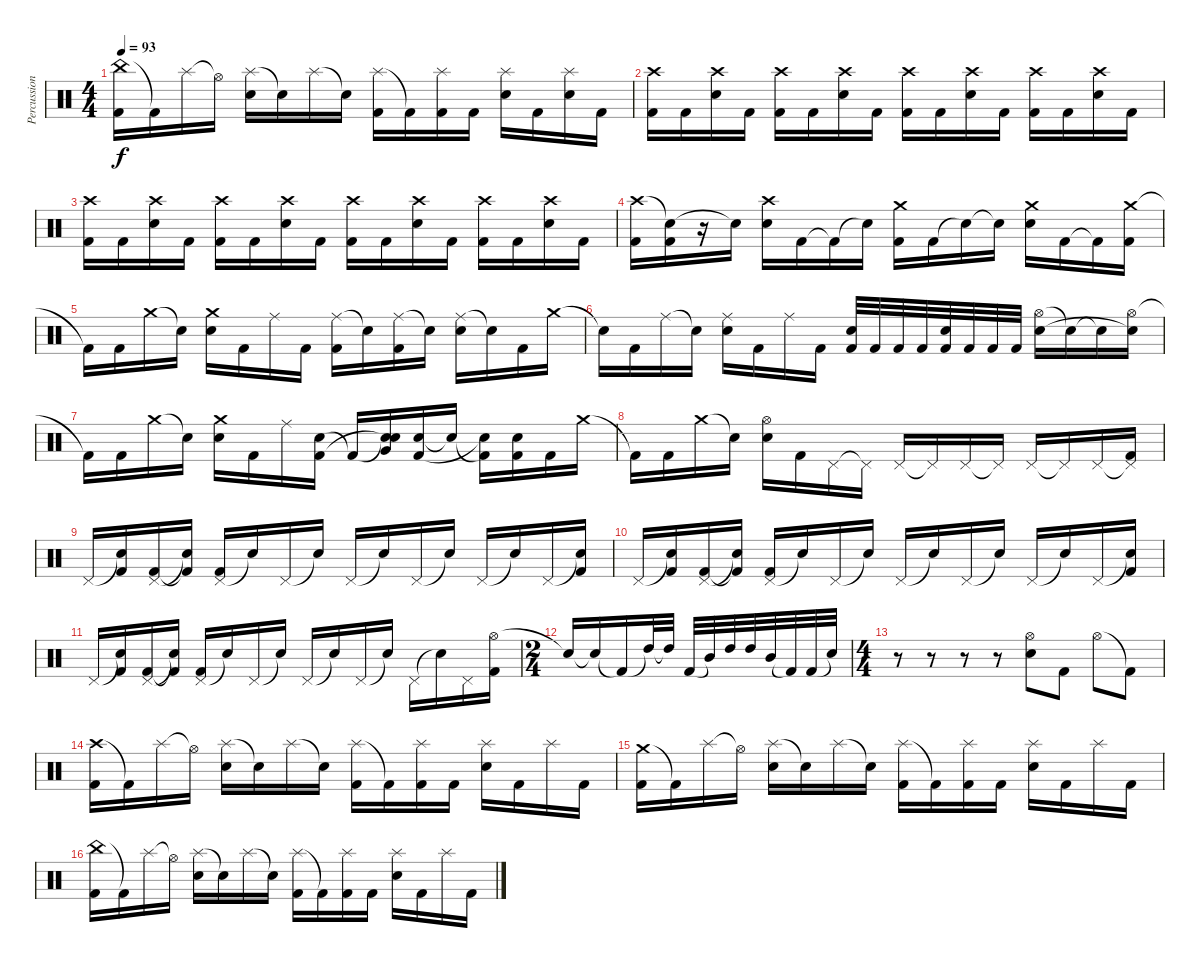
\track ("Percussion" "Percussion") {instrument percussion}
\staff {score}
\articulation defaults
\ts (4 4)
\tempo 93
\clef neutral
\ks c
("China (hit)" "Kick (hit) 2").16{dy f} "Kick (hit) 2"{t}.16 "Splash (hit)".16 "Hi-Hat (open)"{t}.16 ("Splash (hit)" "Electric Snare (hit)").16 "Snare (hit)"{t}.16 "Splash (hit)".16 "Snare (hit)"{t}.16 ("Splash (hit)" "Kick (hit) 2").16 "Kick (hit) 2"{t}.16 ("Splash (hit)" "Kick (hit) 2").16 "Kick (hit) 2".16 ("Electric Snare (hit)" "Splash (hit)").16 "Kick (hit) 2".16 ("Electric Snare (hit)" "Splash (hit)").16 "Kick (hit) 2".16 |
("Crash high (hit)" "Kick (hit) 2").16 "Kick (hit) 2".16 ("Electric Snare (hit)" "Crash high (hit)").16 "Kick (hit) 2".16 ("Crash high (hit)" "Kick (hit) 2").16 "Kick (hit) 2".16 ("Electric Snare (hit)" "Crash high (hit)").16 "Kick (hit) 2".16 ("Crash high (hit)" "Kick (hit) 2").16 "Kick (hit) 2".16 ("Electric Snare (hit)" "Crash high (hit)").16 "Kick (hit) 2".16 ("Crash high (hit)" "Kick (hit) 2").16 "Kick (hit) 2".16 ("Electric Snare (hit)" "Crash high (hit)").16 "Kick (hit) 2".16 |
("Crash high (hit)" "Kick (hit) 2").16 "Kick (hit) 2".16 ("Electric Snare (hit)" "Crash high (hit)").16 "Kick (hit) 2".16 ("Crash high (hit)" "Kick (hit) 2").16 "Kick (hit) 2".16 ("Electric Snare (hit)" "Crash high (hit)").16 "Kick (hit) 2".16 ("Crash high (hit)" "Kick (hit) 2").16 "Kick (hit) 2".16 ("Electric Snare (hit)" "Crash high (hit)").16 "Kick (hit) 2".16 ("Crash high (hit)" "Kick (hit) 2").16 "Kick (hit) 2".16 ("Electric Snare (hit)" "Crash high (hit)").16 "Kick (hit) 2".16 |
("Crash high (hit)" "Kick (hit) 2").16 ("Snare (hit)"{t} "Kick (hit) 2").16 r.16 "Snare (hit)"{t}.16 ("Crash high (hit)" "Electric Snare (hit)").16 "Kick (hit) 2".16 "Kick (hit) 2"{t}.16 "Snare (hit)"{t}.16 ("Crash medium (hit)" "Kick (hit) 2").16 "Kick (hit) 2".16 "Snare (hit)"{t}.16 "Snare (hit)"{t}.16 ("Crash medium (hit)" "Electric Snare (hit)").16 "Kick (hit) 2".16 "Kick (hit) 2"{t}.16 ("Crash medium (hit)" "Kick (hit) 2").16 |
"Kick (hit) 2"{t}.16 "Kick (hit) 2".16 "Crash medium (hit)".16 "Snare (hit)"{t}.16 ("Crash medium (hit)" "Electric Snare (hit)").16 "Kick (hit) 2".16 "Ride (middle)".16 "Kick (hit) 2".16 ("Ride (middle)" "Kick (hit) 2").16 "Snare (hit)"{t}.16 ("Ride (middle)" "Kick (hit) 2").16 "Snare (hit)"{t}.16 ("Ride (middle)" "Electric Snare (hit)").16 "Snare (hit)"{t}.16 "Kick (hit) 2".16 "Crash medium (hit)".16 |
"Snare (hit)"{t}.16 "Kick (hit) 2".16 "Ride (middle)".16 "Snare (hit)"{t}.16 ("Ride (middle)" "Electric Snare (hit)").16 "Kick (hit) 2".16 "Ride (middle)".16 "Kick (hit) 2".16 ("Electric Snare (hit)" "Kick (hit) 2").32 "Kick (hit) 2".32 "Kick (hit) 2".32 "Kick (hit) 2".32 ("Electric Snare (hit)" "Kick (hit) 2").32 "Kick (hit) 2".32 "Kick (hit) 2".32 "Kick (hit) 2".32 ("Hi-Hat (open)" "Electric Snare (hit)").16 "Snare (hit)"{t}.16 "Snare (hit)"{t}.16 ("Hi-Hat (open)" "Snare (hit)"{t}).16 |
"Kick (hit) 2"{t}.16 "Kick (hit) 2".16 "Crash medium (hit)".16 "Snare (hit)"{t}.16 ("Crash medium (hit)" "Electric Snare (hit)").16 "Kick (hit) 2".16 "Ride (middle)".16 ("Electric Snare (hit)" "Kick (hit) 2").16 "Kick (hit) 2"{t}.16 ("Snare (hit)"{t} "Electric Snare (hit)"{t} "Very Low Tom (hit)").16 ("Electric Snare (hit)" "Kick (hit) 2").16 "Snare (hit)"{t}.16 ("Kick (hit) 2"{t} "Electric Snare (hit)"{t}).16 ("Kick (hit) 2" "Electric Snare (hit)").16 "Kick (hit) 2".16 "Crash medium (hit)".16 |
"Kick (hit) 2"{t}.16 "Kick (hit) 2".16 "Crash medium (hit)".16 "Snare (hit)"{t}.16 ("Hi-Hat (open)" "Electric Snare (hit)").16 "Kick (hit) 2".16 "Pedal Hi-Hat (hit)".16 "Pedal Hi-Hat (hit)"{t}.16 "Pedal Hi-Hat (hit)".16 "Pedal Hi-Hat (hit)"{t}.16 "Pedal Hi-Hat (hit)".16 "Pedal Hi-Hat (hit)"{t}.16 "Pedal Hi-Hat (hit)".16 "Pedal Hi-Hat (hit)"{t}.16 "Pedal Hi-Hat (hit)".16 ("Pedal Hi-Hat (hit)"{t} "Kick (hit) 2").16 |
"Pedal Hi-Hat (hit)".16 ("Snare (hit)"{t} "Kick (hit) 2").16 ("Pedal Hi-Hat (hit)" "Kick (hit) 2").16 ("Snare (hit)"{t} "Kick (hit) 2"{t}).16 ("Pedal Hi-Hat (hit)" "Kick (hit) 2").16 "Snare (hit)"{t}.16 "Pedal Hi-Hat (hit)".16 "Snare (hit)"{t}.16 "Pedal Hi-Hat (hit)".16 "Snare (hit)"{t}.16 "Pedal Hi-Hat (hit)".16 "Snare (hit)"{t}.16 "Pedal Hi-Hat (hit)".16 "Snare (hit)"{t}.16 "Pedal Hi-Hat (hit)".16 ("Snare (hit)"{t} "Kick (hit) 2").16 |
"Pedal Hi-Hat (hit)".16 ("Snare (hit)"{t} "Kick (hit) 2").16 ("Pedal Hi-Hat (hit)" "Kick (hit) 2").16 ("Snare (hit)"{t} "Kick (hit) 2"{t}).16 ("Pedal Hi-Hat (hit)" "Kick (hit) 2").16 "Snare (hit)"{t}.16 "Pedal Hi-Hat (hit)".16 "Snare (hit)"{t}.16 "Pedal Hi-Hat (hit)".16 "Snare (hit)"{t}.16 "Pedal Hi-Hat (hit)".16 "Snare (hit)"{t}.16 "Pedal Hi-Hat (hit)".16 "Snare (hit)"{t}.16 "Pedal Hi-Hat (hit)".16 ("Snare (hit)"{t} "Kick (hit) 2").16 |
"Pedal Hi-Hat (hit)".16 ("Snare (hit)"{t} "Kick (hit) 2").16 ("Pedal Hi-Hat (hit)" "Kick (hit) 2").16 ("Snare (hit)"{t} "Kick (hit) 2"{t}).16 ("Pedal Hi-Hat (hit)" "Kick (hit) 2").16 "Snare (hit)"{t}.16 "Pedal Hi-Hat (hit)".16 "Snare (hit)"{t}.16 "Pedal Hi-Hat (hit)".16 "Snare (hit)"{t}.16 "Pedal Hi-Hat (hit)".16 "Snare (hit)"{t}.16 "Pedal Hi-Hat (hit)".16 "Snare (hit)"{t}.16 "Pedal Hi-Hat (hit)".16 ("Hi-Hat (open)" "Kick (hit) 2").16 |
\ts (2 4)
"Snare (hit)"{t}.16 "Snare (hit)"{t}.16 "Kick (hit) 2"{t}.16 "High Tom (hit)"{t}.32 "High Tom (hit)"{t}.32 "Kick (hit) 2".32 "Mid Tom (hit)"{t}.32 "High Tom (hit)".32 "High Tom (hit)".32 "Mid Tom (hit)".32 "Kick (hit) 2"{t}.32 "Kick (hit) 2".32 "Snare (hit)"{t}.32 |
\ts (4 4)
r.8 r.8 r.8 r.8 ("Hi-Hat (open)" "Electric Snare (hit)").8 "Kick (hit) 2".8 "Hi-Hat (open)".8 "Kick (hit) 2"{t}.8 |
("Crash high (hit)" "Kick (hit) 2").16 "Kick (hit) 2"{t}.16 "Splash (hit)".16 "Hi-Hat (open)"{t}.16 ("Splash (hit)" "Electric Snare (hit)").16 "Snare (hit)"{t}.16 "Splash (hit)".16 "Snare (hit)"{t}.16 ("Splash (hit)" "Kick (hit) 2").16 "Kick (hit) 2"{t}.16 ("Splash (hit)" "Kick (hit) 2").16 "Kick (hit) 2".16 ("Electric Snare (hit)" "Splash (hit)").16 "Kick (hit) 2".16 "Splash (hit)".16 "Kick (hit) 2".16 |
("Crash medium (hit)" "Kick (hit) 2").16 "Kick (hit) 2"{t}.16 "Splash (hit)".16 "Hi-Hat (open)"{t}.16 ("Splash (hit)" "Electric Snare (hit)").16 "Snare (hit)"{t}.16 "Splash (hit)".16 "Snare (hit)"{t}.16 ("Splash (hit)" "Kick (hit) 2").16 "Kick (hit) 2"{t}.16 ("Splash (hit)" "Kick (hit) 2").16 "Kick (hit) 2".16 ("Electric Snare (hit)" "Splash (hit)").16 "Kick (hit) 2".16 "Splash (hit)".16 "Kick (hit) 2".16 |
("China (hit)" "Kick (hit) 2").16 "Kick (hit) 2"{t}.16 "Splash (hit)".16 "Hi-Hat (open)"{t}.16 ("Splash (hit)" "Electric Snare (hit)").16 "Snare (hit)"{t}.16 "Splash (hit)".16 "Snare (hit)"{t}.16 ("Splash (hit)" "Kick (hit) 2").16 "Kick (hit) 2"{t}.16 ("Splash (hit)" "Kick (hit) 2").16 "Kick (hit) 2".16 ("Electric Snare (hit)" "Splash (hit)").16 "Kick (hit) 2".16 "Splash (hit)".16 "Kick (hit) 2".16
